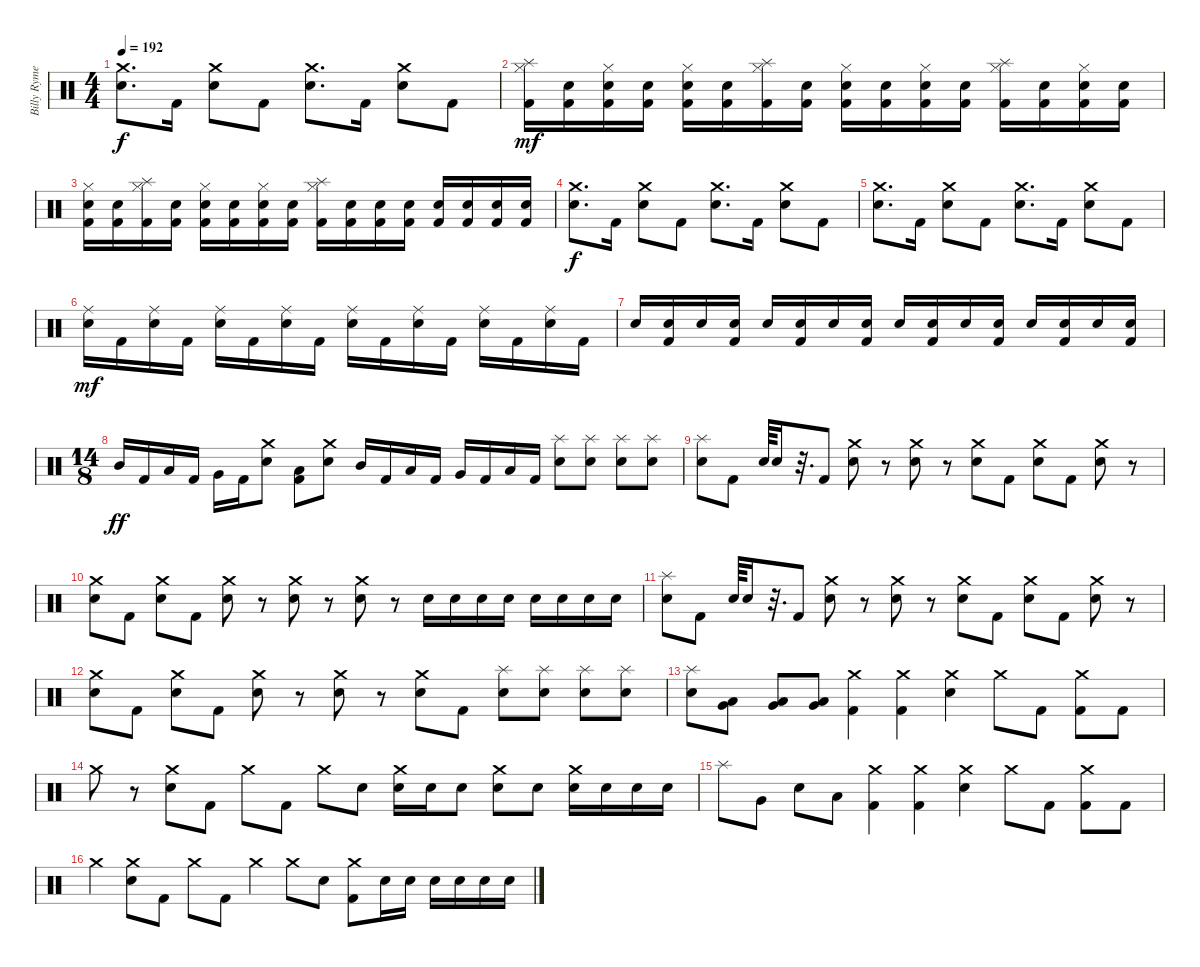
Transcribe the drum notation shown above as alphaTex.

\track ("Billy Rymer" "Billy Ryme") {instrument percussion}
\staff {score}
\articulation defaults
\ts (4 4)
\tempo 192
\clef neutral
\ks c
("Crash medium (hit)" "Electric Snare (hit)").8{d dy f} "Kick (hit) 2".16 ("Crash medium (hit)" "Electric Snare (hit)").8 "Kick (hit) 2".8 ("Crash medium (hit)" "Electric Snare (hit)").8{d} "Kick (hit) 2".16 ("Crash medium (hit)" "Electric Snare (hit)").8 "Kick (hit) 2".8 |
("Splash (hit)" "Hi-Hat (closed)" "Kick (hit) 2").16{dy mf} ("Electric Snare (hit)" "Kick (hit) 2").16 ("Hi-Hat (closed)" "Electric Snare (hit)" "Kick (hit) 2").16 ("Electric Snare (hit)" "Kick (hit) 2").16 ("Hi-Hat (closed)" "Electric Snare (hit)" "Kick (hit) 2").16 ("Electric Snare (hit)" "Kick (hit) 2").16 ("Splash (hit)" "Hi-Hat (closed)" "Kick (hit) 2").16 ("Electric Snare (hit)" "Kick (hit) 2").16 ("Hi-Hat (closed)" "Electric Snare (hit)" "Kick (hit) 2").16 ("Electric Snare (hit)" "Kick (hit) 2").16 ("Hi-Hat (closed)" "Electric Snare (hit)" "Kick (hit) 2").16 ("Electric Snare (hit)" "Kick (hit) 2").16 ("Splash (hit)" "Hi-Hat (closed)" "Kick (hit) 2").16 ("Electric Snare (hit)" "Kick (hit) 2").16 ("Hi-Hat (closed)" "Electric Snare (hit)" "Kick (hit) 2").16 ("Electric Snare (hit)" "Kick (hit) 2").16 |
("Hi-Hat (closed)" "Electric Snare (hit)" "Kick (hit) 2").16 ("Electric Snare (hit)" "Kick (hit) 2").16 ("Splash (hit)" "Hi-Hat (closed)" "Kick (hit) 2").16 ("Electric Snare (hit)" "Kick (hit) 2").16 ("Hi-Hat (closed)" "Electric Snare (hit)" "Kick (hit) 2").16 ("Electric Snare (hit)" "Kick (hit) 2").16 ("Hi-Hat (closed)" "Electric Snare (hit)" "Kick (hit) 2").16 ("Electric Snare (hit)" "Kick (hit) 2").16 ("Splash (hit)" "Hi-Hat (closed)" "Kick (hit) 2").16 ("Electric Snare (hit)" "Kick (hit) 2").16 ("Electric Snare (hit)" "Kick (hit) 2").16 ("Electric Snare (hit)" "Kick (hit) 2").16 ("Electric Snare (hit)" "Kick (hit) 2").16 ("Electric Snare (hit)" "Kick (hit) 2").16 ("Electric Snare (hit)" "Kick (hit) 2").16 ("Electric Snare (hit)" "Kick (hit) 2").16 |
("Crash medium (hit)" "Electric Snare (hit)").8{d dy f} "Kick (hit) 2".16 ("Crash medium (hit)" "Electric Snare (hit)").8 "Kick (hit) 2".8 ("Crash medium (hit)" "Electric Snare (hit)").8{d} "Kick (hit) 2".16 ("Crash medium (hit)" "Electric Snare (hit)").8 "Kick (hit) 2".8 |
("Crash medium (hit)" "Electric Snare (hit)").8{d} "Kick (hit) 2".16 ("Crash medium (hit)" "Electric Snare (hit)").8 "Kick (hit) 2".8 ("Crash medium (hit)" "Electric Snare (hit)").8{d} "Kick (hit) 2".16 ("Crash medium (hit)" "Electric Snare (hit)").8 "Kick (hit) 2".8 |
("Ride (middle)" "Electric Snare (hit)").16{dy mf} "Kick (hit) 2".16 ("Ride (middle)" "Electric Snare (hit)").16 "Kick (hit) 2".16 ("Ride (middle)" "Electric Snare (hit)").16 "Kick (hit) 2".16 ("Ride (middle)" "Electric Snare (hit)").16 "Kick (hit) 2".16 ("Ride (middle)" "Electric Snare (hit)").16 "Kick (hit) 2".16 ("Ride (middle)" "Electric Snare (hit)").16 "Kick (hit) 2".16 ("Ride (middle)" "Electric Snare (hit)").16 "Kick (hit) 2".16 ("Ride (middle)" "Electric Snare (hit)").16 "Kick (hit) 2".16 |
"Electric Snare (hit)".16 ("Electric Snare (hit)" "Kick (hit) 2").16 "Electric Snare (hit)".16 ("Electric Snare (hit)" "Kick (hit) 2").16 "Electric Snare (hit)".16 ("Electric Snare (hit)" "Kick (hit) 2").16 "Electric Snare (hit)".16 ("Electric Snare (hit)" "Kick (hit) 2").16 "Electric Snare (hit)".16 ("Electric Snare (hit)" "Kick (hit) 2").16 "Electric Snare (hit)".16 ("Electric Snare (hit)" "Kick (hit) 2").16 "Electric Snare (hit)".16 ("Electric Snare (hit)" "Kick (hit) 2").16 "Electric Snare (hit)".16 ("Electric Snare (hit)" "Kick (hit) 2").16 |
\ts (14 8)
"Mid Tom (hit)".16{dy ff} "Kick (hit) 2".16 "Low Tom (hit)".16 "Kick (hit) 2".16 "Very Low Tom (hit)".16 "Kick (hit) 2".16 ("Crash medium (hit)" "Electric Snare (hit)").8 ("Low Floor Tom (hit)" "Kick (hit) 2").8 ("Crash medium (hit)" "Electric Snare (hit)").8 "Mid Tom (hit)".16 "Kick (hit) 2".16 "Low Tom (hit)".16 "Kick (hit) 2".16 "Very Low Tom (hit)".16 "Kick (hit) 2".16 "Low Floor Tom (hit)".16 "Kick (hit) 2".16 ("Splash (hit)" "Electric Snare (hit)").8 ("Splash (hit)" "Electric Snare (hit)").8 ("Splash (hit)" "Electric Snare (hit)").8 ("Splash (hit)" "Electric Snare (hit)").8 |
("Splash (hit)" "Electric Snare (hit)").8 "Kick (hit) 2".8 "Electric Snare (hit)".64 "Electric Snare (hit)".16 r.32{d} "Kick (hit) 2".8 ("Crash medium (hit)" "Electric Snare (hit)").8 r.8 ("Crash medium (hit)" "Electric Snare (hit)").8 r.8 ("Crash medium (hit)" "Electric Snare (hit)").8 "Kick (hit) 2".8 ("Crash medium (hit)" "Electric Snare (hit)").8 "Kick (hit) 2".8 ("Crash medium (hit)" "Electric Snare (hit)").8 r.8 |
("Crash medium (hit)" "Electric Snare (hit)").8 "Kick (hit) 2".8 ("Crash medium (hit)" "Electric Snare (hit)").8 "Kick (hit) 2".8 ("Crash medium (hit)" "Electric Snare (hit)").8 r.8 ("Crash medium (hit)" "Electric Snare (hit)").8 r.8 ("Crash medium (hit)" "Electric Snare (hit)").8 r.8 "Electric Snare (hit)".16 "Electric Snare (hit)".16 "Electric Snare (hit)".16 "Electric Snare (hit)".16 "Electric Snare (hit)".16 "Electric Snare (hit)".16 "Electric Snare (hit)".16 "Electric Snare (hit)".16 |
("Splash (hit)" "Electric Snare (hit)").8 "Kick (hit) 2".8 "Electric Snare (hit)".64 "Electric Snare (hit)".16 r.32{d} "Kick (hit) 2".8 ("Crash medium (hit)" "Electric Snare (hit)").8 r.8 ("Crash medium (hit)" "Electric Snare (hit)").8 r.8 ("Crash medium (hit)" "Electric Snare (hit)").8 "Kick (hit) 2".8 ("Crash medium (hit)" "Electric Snare (hit)").8 "Kick (hit) 2".8 ("Crash medium (hit)" "Electric Snare (hit)").8 r.8 |
("Crash medium (hit)" "Electric Snare (hit)").8 "Kick (hit) 2".8 ("Crash medium (hit)" "Electric Snare (hit)").8 "Kick (hit) 2".8 ("Crash medium (hit)" "Electric Snare (hit)").8 r.8 ("Crash medium (hit)" "Electric Snare (hit)").8 r.8 ("Crash medium (hit)" "Electric Snare (hit)").8 "Kick (hit) 2".8 ("Splash (hit)" "Electric Snare (hit)").8 ("Splash (hit)" "Electric Snare (hit)").8 ("Splash (hit)" "Electric Snare (hit)").8 ("Splash (hit)" "Electric Snare (hit)").8 |
("Splash (hit)" "Electric Snare (hit)").8 ("Very Low Tom (hit)" "Low Floor Tom (hit)").8 ("Very Low Tom (hit)" "Low Floor Tom (hit)").8 ("Very Low Tom (hit)" "Low Floor Tom (hit)").8 ("Crash medium (hit)" "Kick (hit) 2").4 ("Crash medium (hit)" "Kick (hit) 2").4 ("Crash medium (hit)" "Electric Snare (hit)").4 "Crash medium (hit)".8 "Kick (hit) 2".8 ("Crash medium (hit)" "Kick (hit) 2").8 "Kick (hit) 2".8 |
"Crash medium (hit)".8 r.8 ("Crash medium (hit)" "Electric Snare (hit)").8 "Kick (hit) 2".8 "Crash medium (hit)".8 "Kick (hit) 2".8 "Crash medium (hit)".8 "Electric Snare (hit)".8 ("Crash medium (hit)" "Electric Snare (hit)").16 "Electric Snare (hit)".16 "Electric Snare (hit)".8 ("Crash medium (hit)" "Electric Snare (hit)").8 "Electric Snare (hit)".8 ("Crash medium (hit)" "Electric Snare (hit)").16 "Electric Snare (hit)".16 "Electric Snare (hit)".16 "Electric Snare (hit)".16 |
"Splash (hit)".8 "Very Low Tom (hit)".8 "Electric Snare (hit)".8 "Low Floor Tom (hit)".8 ("Crash medium (hit)" "Kick (hit) 2").4 ("Crash medium (hit)" "Kick (hit) 2").4 ("Crash medium (hit)" "Electric Snare (hit)").4 "Crash medium (hit)".8 "Kick (hit) 2".8 ("Crash medium (hit)" "Kick (hit) 2").8 "Kick (hit) 2".8 |
"Crash medium (hit)".4 ("Crash medium (hit)" "Electric Snare (hit)").8 "Kick (hit) 2".8 "Crash medium (hit)".8 "Kick (hit) 2".8 "Crash medium (hit)".4 "Crash medium (hit)".8 "Electric Snare (hit)".8 ("Crash medium (hit)" "Kick (hit) 2").8 "Electric Snare (hit)".16 "Electric Snare (hit)".16 "Electric Snare (hit)".16 "Electric Snare (hit)".16 "Electric Snare (hit)".16 "Electric Snare (hit)".16
